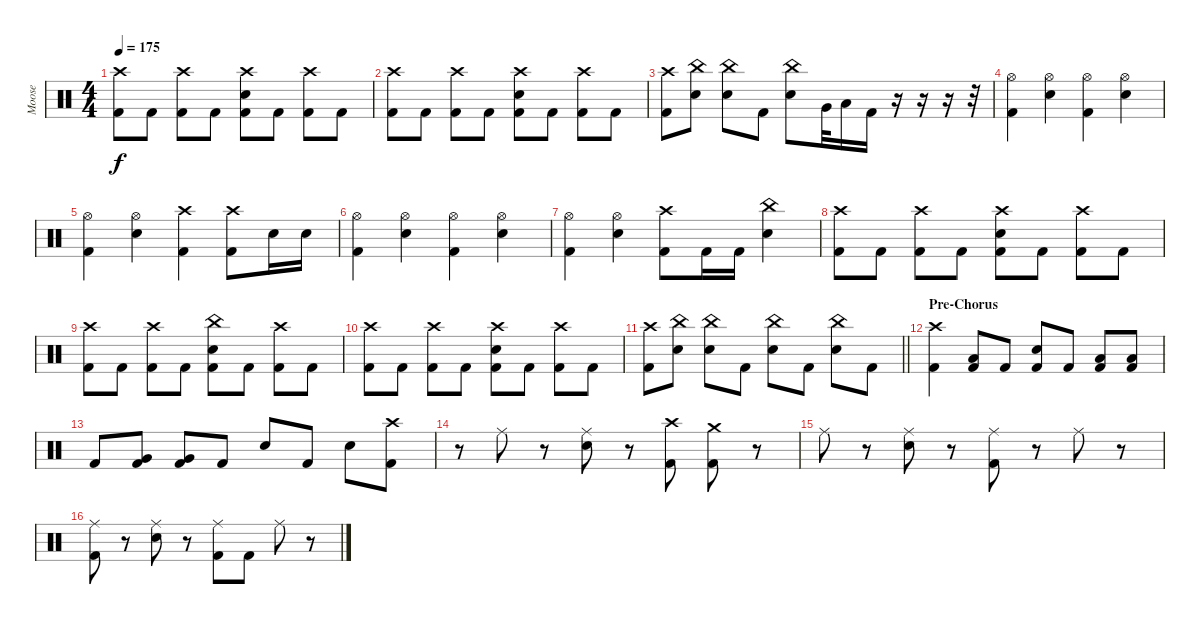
\track ("Moose" "Moose") {instrument percussion}
\staff {score}
\articulation defaults
\ts (4 4)
\tempo 175
\clef neutral
\ks c
("Crash high (hit)" "Kick (hit) 2").8{dy f} "Kick (hit) 2".8 ("Crash high (hit)" "Kick (hit) 2").8 "Kick (hit) 2".8 ("Crash high (hit)" "Electric Snare (hit)" "Kick (hit) 2").8 "Kick (hit) 2".8 ("Crash high (hit)" "Kick (hit) 2").8 "Kick (hit) 2".8 |
("Crash high (hit)" "Kick (hit) 2").8 "Kick (hit) 2".8 ("Crash high (hit)" "Kick (hit) 2").8 "Kick (hit) 2".8 ("Crash high (hit)" "Electric Snare (hit)" "Kick (hit) 2").8 "Kick (hit) 2".8 ("Crash high (hit)" "Kick (hit) 2").8 "Kick (hit) 2".8 |
("Crash high (hit)" "Kick (hit) 2").8 ("China (hit)" "Electric Snare (hit)").8 ("China (hit)" "Electric Snare (hit)").8 "Kick (hit) 2".8 ("China (hit)" "Electric Snare (hit)").8 "Very Low Tom (hit)".32 "Low Floor Tom (hit)".16 "Kick (hit) 2".16 r.16 r.16 r.16 r.32 |
("Hi-Hat (open)" "Kick (hit) 2").4 ("Hi-Hat (open)" "Electric Snare (hit)").4 ("Hi-Hat (open)" "Kick (hit) 2").4 ("Hi-Hat (open)" "Electric Snare (hit)").4 |
("Hi-Hat (open)" "Kick (hit) 2").4 ("Hi-Hat (open)" "Electric Snare (hit)").4 ("Crash high (hit)" "Kick (hit) 2").4 ("Crash high (hit)" "Kick (hit) 2").8 "Electric Snare (hit)".16 "Electric Snare (hit)".16 |
("Hi-Hat (open)" "Kick (hit) 2").4 ("Hi-Hat (open)" "Electric Snare (hit)").4 ("Hi-Hat (open)" "Kick (hit) 2").4 ("Hi-Hat (open)" "Electric Snare (hit)").4 |
("Hi-Hat (open)" "Kick (hit) 2").4 ("Hi-Hat (open)" "Electric Snare (hit)").4 ("Crash high (hit)" "Kick (hit) 2").8 "Kick (hit) 2".16 "Kick (hit) 2".16 ("China (hit)" "Electric Snare (hit)").4 |
("Crash high (hit)" "Kick (hit) 2").8 "Kick (hit) 2".8 ("Crash high (hit)" "Kick (hit) 2").8 "Kick (hit) 2".8 ("Crash high (hit)" "Electric Snare (hit)" "Kick (hit) 2").8 "Kick (hit) 2".8 ("Crash high (hit)" "Kick (hit) 2").8 "Kick (hit) 2".8 |
("Crash high (hit)" "Kick (hit) 2").8 "Kick (hit) 2".8 ("Crash high (hit)" "Kick (hit) 2").8 "Kick (hit) 2".8 ("China (hit)" "Electric Snare (hit)" "Kick (hit) 2").8 "Kick (hit) 2".8 ("Crash high (hit)" "Kick (hit) 2").8 "Kick (hit) 2".8 |
("Crash high (hit)" "Kick (hit) 2").8 "Kick (hit) 2".8 ("Crash high (hit)" "Kick (hit) 2").8 "Kick (hit) 2".8 ("Crash high (hit)" "Electric Snare (hit)" "Kick (hit) 2").8 "Kick (hit) 2".8 ("Crash high (hit)" "Kick (hit) 2").8 "Kick (hit) 2".8 |
\barLineRight lightlight
("Crash high (hit)" "Kick (hit) 2").8 ("China (hit)" "Electric Snare (hit)").8 ("China (hit)" "Electric Snare (hit)").8 "Kick (hit) 2".8 ("China (hit)" "Electric Snare (hit)").8 "Kick (hit) 2".8 ("China (hit)" "Electric Snare (hit)").8 "Kick (hit) 2".8 |
\section ("" "Pre-Chorus")
("Crash high (hit)" "Kick (hit) 2").4 ("Low Tom (hit)" "Kick (hit) 2").8 "Kick (hit) 2".8 ("Electric Snare (hit)" "Kick (hit) 2").8 "Kick (hit) 2".8 ("Low Tom (hit)" "Kick (hit) 2").8 ("Low Tom (hit)" "Kick (hit) 2").8 |
"Kick (hit) 2".8 ("Very Low Tom (hit)" "Kick (hit) 2").8 ("Very Low Tom (hit)" "Kick (hit) 2").8 "Kick (hit) 2".8 "Electric Snare (hit)".8 "Kick (hit) 2".8 "Electric Snare (hit)".8 ("Crash high (hit)" "Kick (hit) 2").8 |
r.8 "Ride (middle)".8 r.8 ("Ride (middle)" "Electric Snare (hit)").8 r.8 ("Crash high (hit)" "Kick (hit) 2").8 ("Crash medium (hit)" "Kick (hit) 2").8 r.8 |
"Ride (middle)".8 r.8 ("Ride (middle)" "Electric Snare (hit)").8 r.8 ("Ride (middle)" "Kick (hit) 2").8 r.8 "Ride (middle)".8 r.8 |
("Ride (middle)" "Kick (hit) 2").8 r.8 ("Ride (middle)" "Electric Snare (hit)").8 r.8 ("Ride (middle)" "Kick (hit) 2").8 "Kick (hit) 2".8 "Ride (middle)".8 r.8
